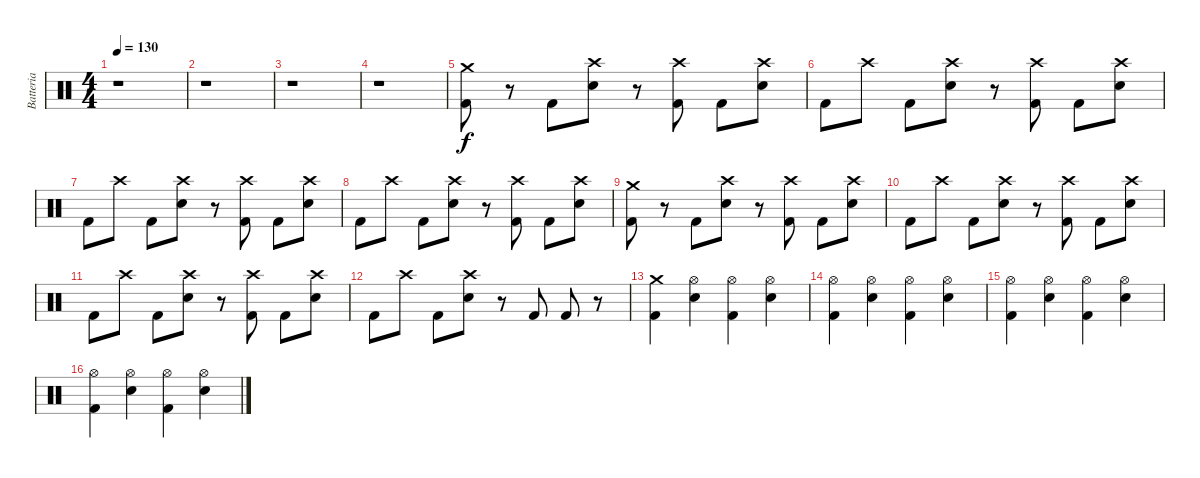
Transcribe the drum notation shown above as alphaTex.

\track ("Batteria" "Batteria") {instrument percussion}
\staff {score}
\articulation defaults
\ts (4 4)
\tempo 130
\clef neutral
\ks c
r.1{dy f} |
r.1 |
r.1 |
r.1 |
("Crash medium (hit)" "Kick (hit) 2").8 r.8 "Kick (hit) 2".8 ("Crash high (hit)" "Electric Snare (hit)").8 r.8 ("Crash high (hit)" "Kick (hit) 2").8 "Kick (hit) 2".8 ("Crash high (hit)" "Electric Snare (hit)").8 |
"Kick (hit) 2".8 "Crash high (hit)".8 "Kick (hit) 2".8 ("Electric Snare (hit)" "Crash high (hit)").8 r.8 ("Kick (hit) 2" "Crash high (hit)").8 "Kick (hit) 2".8 ("Electric Snare (hit)" "Crash high (hit)").8 |
"Kick (hit) 2".8 "Crash high (hit)".8 "Kick (hit) 2".8 ("Crash high (hit)" "Electric Snare (hit)").8 r.8 ("Crash high (hit)" "Kick (hit) 2").8 "Kick (hit) 2".8 ("Crash high (hit)" "Electric Snare (hit)").8 |
"Kick (hit) 2".8 "Crash high (hit)".8 "Kick (hit) 2".8 ("Electric Snare (hit)" "Crash high (hit)").8 r.8 ("Kick (hit) 2" "Crash high (hit)").8 "Kick (hit) 2".8 ("Electric Snare (hit)" "Crash high (hit)").8 |
("Crash medium (hit)" "Kick (hit) 2").8 r.8 "Kick (hit) 2".8 ("Crash high (hit)" "Electric Snare (hit)").8 r.8 ("Crash high (hit)" "Kick (hit) 2").8 "Kick (hit) 2".8 ("Crash high (hit)" "Electric Snare (hit)").8 |
"Kick (hit) 2".8 "Crash high (hit)".8 "Kick (hit) 2".8 ("Electric Snare (hit)" "Crash high (hit)").8 r.8 ("Kick (hit) 2" "Crash high (hit)").8 "Kick (hit) 2".8 ("Electric Snare (hit)" "Crash high (hit)").8 |
"Kick (hit) 2".8 "Crash high (hit)".8 "Kick (hit) 2".8 ("Crash high (hit)" "Electric Snare (hit)").8 r.8 ("Crash high (hit)" "Kick (hit) 2").8 "Kick (hit) 2".8 ("Crash high (hit)" "Electric Snare (hit)").8 |
"Kick (hit) 2".8 "Crash high (hit)".8 "Kick (hit) 2".8 ("Electric Snare (hit)" "Crash high (hit)").8 r.8 "Kick (hit) 2".8 "Kick (hit) 2".8 r.8 |
("Kick (hit) 2" "Crash medium (hit)").4 ("Electric Snare (hit)" "Hi-Hat (open)").4 ("Kick (hit) 2" "Hi-Hat (open)").4 ("Electric Snare (hit)" "Hi-Hat (open)").4 |
("Kick (hit) 2" "Hi-Hat (open)").4 ("Electric Snare (hit)" "Hi-Hat (open)").4 ("Kick (hit) 2" "Hi-Hat (open)").4 ("Electric Snare (hit)" "Hi-Hat (open)").4 |
("Kick (hit) 2" "Hi-Hat (open)").4 ("Electric Snare (hit)" "Hi-Hat (open)").4 ("Kick (hit) 2" "Hi-Hat (open)").4 ("Electric Snare (hit)" "Hi-Hat (open)").4 |
("Kick (hit) 2" "Hi-Hat (open)").4 ("Electric Snare (hit)" "Hi-Hat (open)").4 ("Kick (hit) 2" "Hi-Hat (open)").4 ("Electric Snare (hit)" "Hi-Hat (open)").4
